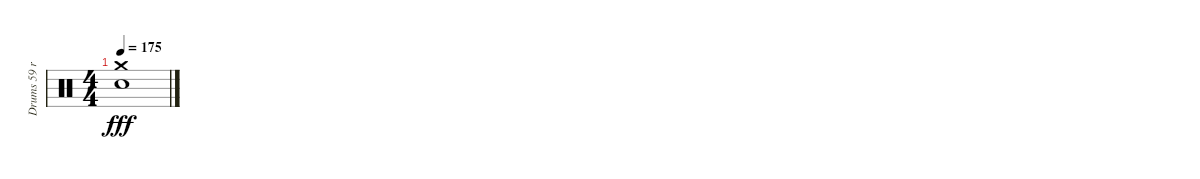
\track ("Drums 59 ride" "Drums 59 r") {instrument percussion}
\staff {score}
\articulation defaults
\ts (4 4)
\tempo 175
\clef neutral
\ks c
("Crash medium (hit)" "Snare (hit) 2").1{dy fff}
